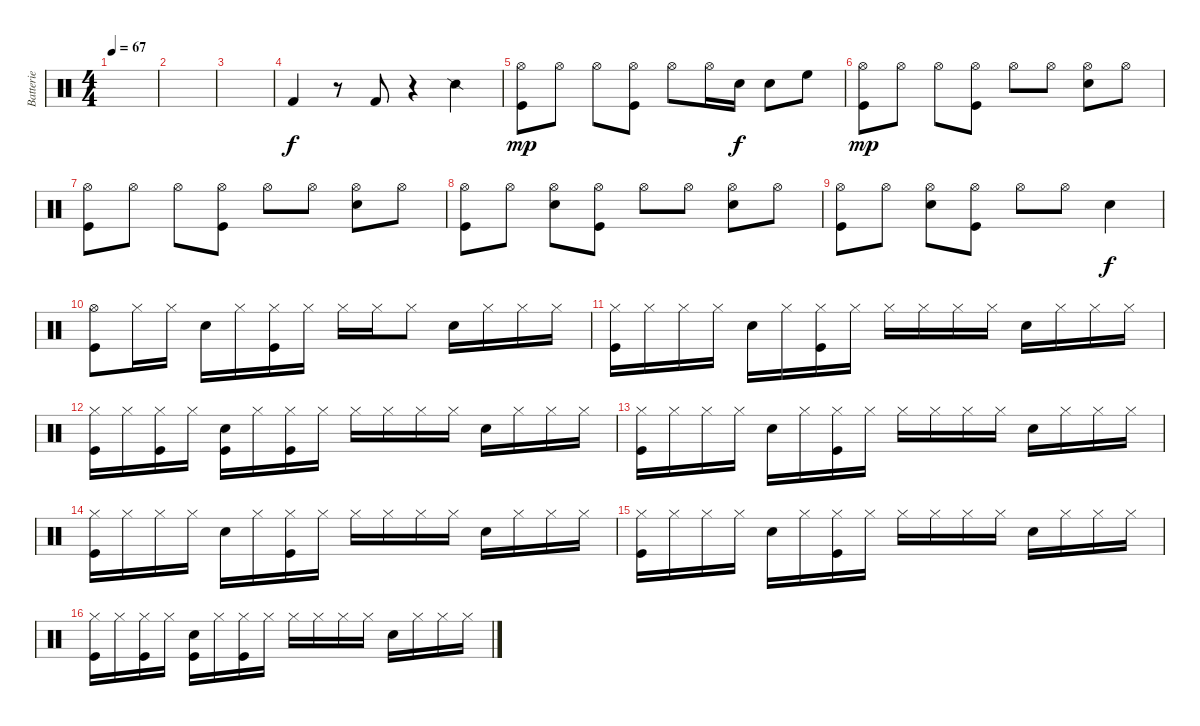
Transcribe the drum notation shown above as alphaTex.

\track ("Batterie" "Batterie") {instrument percussion}
\staff {score}
\articulation defaults
\ts (4 4)
\tempo 67
\clef neutral
\ks c
|
|
|
"Kick (hit) 2".4 r.8 "Kick (hit) 2".8 r.4 "Snare (side stick) 2".4 |
("Hi-Hat (open)" "Kick (hit)").8{dy mp} "Hi-Hat (open)".8 "Hi-Hat (open)".8 ("Hi-Hat (open)" "Kick (hit)").8 "Hi-Hat (open)".8 "Hi-Hat (open)".16 "Snare (hit) 2".16{dy f} "Snare (hit) 2".8 "High Floor Tom (hit)".8 |
("Hi-Hat (open)" "Kick (hit)").8{dy mp} "Hi-Hat (open)".8 "Hi-Hat (open)".8 ("Hi-Hat (open)" "Kick (hit)").8 "Hi-Hat (open)".8 "Hi-Hat (open)".8 ("Hi-Hat (open)" "Snare (hit) 2").8 "Hi-Hat (open)".8 |
("Hi-Hat (open)" "Kick (hit)").8 "Hi-Hat (open)".8 "Hi-Hat (open)".8 ("Hi-Hat (open)" "Kick (hit)").8 "Hi-Hat (open)".8 "Hi-Hat (open)".8 ("Hi-Hat (open)" "Snare (hit) 2").8 "Hi-Hat (open)".8 |
("Hi-Hat (open)" "Kick (hit)").8 "Hi-Hat (open)".8 ("Hi-Hat (open)" "Snare (hit) 2").8 ("Hi-Hat (open)" "Kick (hit)").8 "Hi-Hat (open)".8 "Hi-Hat (open)".8 ("Hi-Hat (open)" "Snare (hit) 2").8 "Hi-Hat (open)".8 |
("Hi-Hat (open)" "Kick (hit)").8 "Hi-Hat (open)".8 ("Hi-Hat (open)" "Snare (hit) 2").8 ("Hi-Hat (open)" "Kick (hit)").8 "Hi-Hat (open)".8 "Hi-Hat (open)".8 "Snare (hit) 2".4{dy f} |
("Hi-Hat (open)" "Kick (hit)").8 "Hi-Hat (closed)".16 "Hi-Hat (closed)".16 "Snare (hit) 2".16 "Hi-Hat (closed)".16 ("Hi-Hat (closed)" "Kick (hit)").16 "Hi-Hat (closed)".16 "Hi-Hat (closed)".16 "Hi-Hat (closed)".16 "Hi-Hat (closed)".8 "Snare (hit) 2".16 "Hi-Hat (closed)".16 "Hi-Hat (closed)".16 "Hi-Hat (closed)".16 |
("Hi-Hat (closed)" "Kick (hit)").16 "Hi-Hat (closed)".16 "Hi-Hat (closed)".16 "Hi-Hat (closed)".16 "Snare (hit) 2".16 "Hi-Hat (closed)".16 ("Hi-Hat (closed)" "Kick (hit)").16 "Hi-Hat (closed)".16 "Hi-Hat (closed)".16 "Hi-Hat (closed)".16 "Hi-Hat (closed)".16 "Hi-Hat (closed)".16 "Snare (hit) 2".16 "Hi-Hat (closed)".16 "Hi-Hat (closed)".16 "Hi-Hat (closed)".16 |
("Hi-Hat (closed)" "Kick (hit)").16 "Hi-Hat (closed)".16 ("Hi-Hat (closed)" "Kick (hit)").16 "Hi-Hat (closed)".16 ("Snare (hit) 2" "Kick (hit)").16 "Hi-Hat (closed)".16 ("Hi-Hat (closed)" "Kick (hit)").16 "Hi-Hat (closed)".16 "Hi-Hat (closed)".16 "Hi-Hat (closed)".16 "Hi-Hat (closed)".16 "Hi-Hat (closed)".16 "Snare (hit) 2".16 "Hi-Hat (closed)".16 "Hi-Hat (closed)".16 "Hi-Hat (closed)".16 |
("Hi-Hat (closed)" "Kick (hit)").16 "Hi-Hat (closed)".16 "Hi-Hat (closed)".16 "Hi-Hat (closed)".16 "Snare (hit) 2".16 "Hi-Hat (closed)".16 ("Hi-Hat (closed)" "Kick (hit)").16 "Hi-Hat (closed)".16 "Hi-Hat (closed)".16 "Hi-Hat (closed)".16 "Hi-Hat (closed)".16 "Hi-Hat (closed)".16 "Snare (hit) 2".16 "Hi-Hat (closed)".16 "Hi-Hat (closed)".16 "Hi-Hat (closed)".16 |
("Hi-Hat (closed)" "Kick (hit)").16 "Hi-Hat (closed)".16 "Hi-Hat (closed)".16 "Hi-Hat (closed)".16 "Snare (hit) 2".16 "Hi-Hat (closed)".16 ("Hi-Hat (closed)" "Kick (hit)").16 "Hi-Hat (closed)".16 "Hi-Hat (closed)".16 "Hi-Hat (closed)".16 "Hi-Hat (closed)".16 "Hi-Hat (closed)".16 "Snare (hit) 2".16 "Hi-Hat (closed)".16 "Hi-Hat (closed)".16 "Hi-Hat (closed)".16 |
("Hi-Hat (closed)" "Kick (hit)").16 "Hi-Hat (closed)".16 "Hi-Hat (closed)".16 "Hi-Hat (closed)".16 "Snare (hit) 2".16 "Hi-Hat (closed)".16 ("Hi-Hat (closed)" "Kick (hit)").16 "Hi-Hat (closed)".16 "Hi-Hat (closed)".16 "Hi-Hat (closed)".16 "Hi-Hat (closed)".16 "Hi-Hat (closed)".16 "Snare (hit) 2".16 "Hi-Hat (closed)".16 "Hi-Hat (closed)".16 "Hi-Hat (closed)".16 |
("Hi-Hat (closed)" "Kick (hit)").16 "Hi-Hat (closed)".16 ("Hi-Hat (closed)" "Kick (hit)").16 "Hi-Hat (closed)".16 ("Snare (hit) 2" "Kick (hit)").16 "Hi-Hat (closed)".16 ("Hi-Hat (closed)" "Kick (hit)").16 "Hi-Hat (closed)".16 "Hi-Hat (closed)".16 "Hi-Hat (closed)".16 "Hi-Hat (closed)".16 "Hi-Hat (closed)".16 "Snare (hit) 2".16 "Hi-Hat (closed)".16 "Hi-Hat (closed)".16 "Hi-Hat (closed)".16
